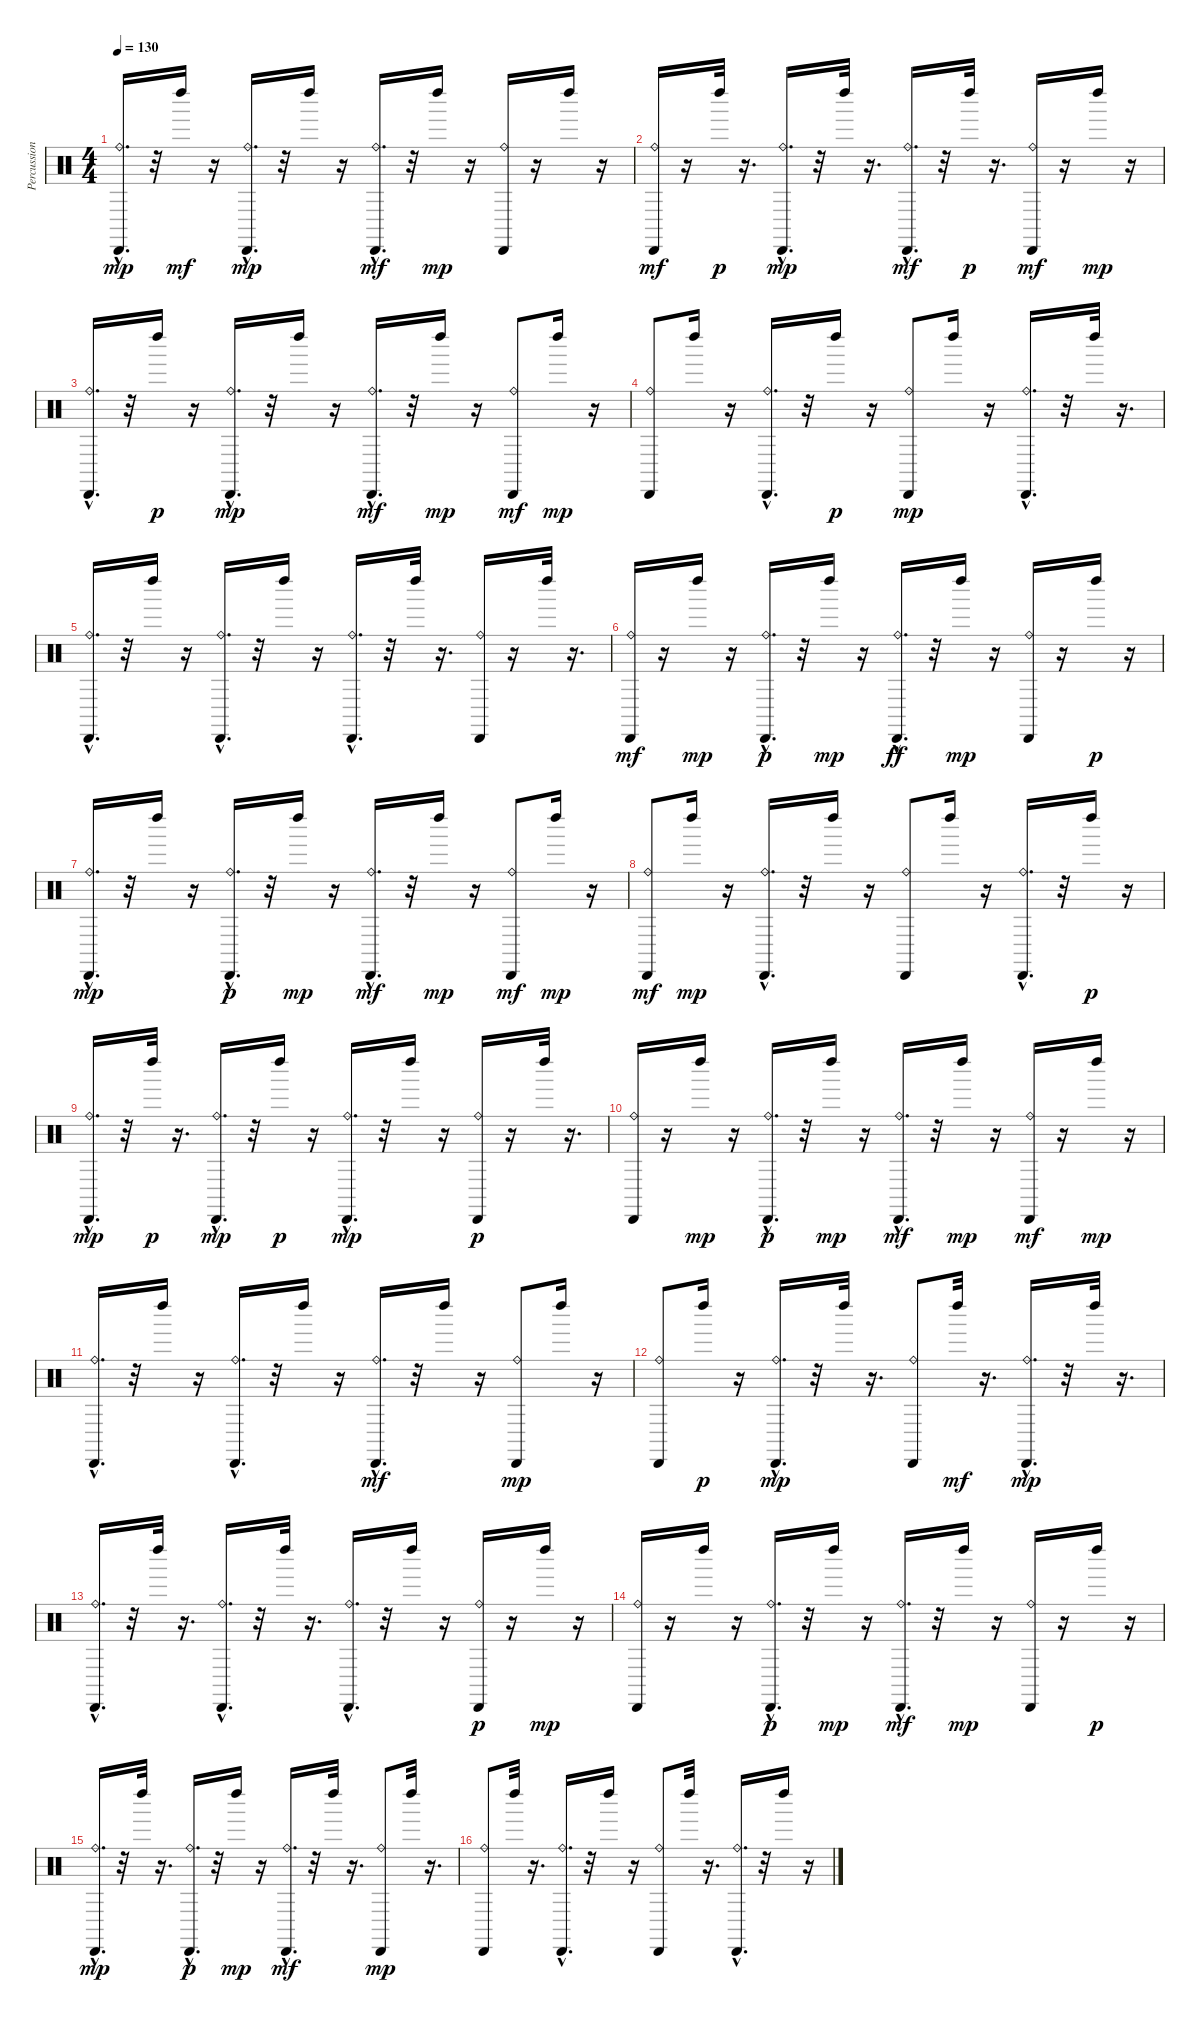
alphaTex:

\track ("Percussion" "Percussion") {instrument percussion}
\staff {score}
\articulation defaults
\ts (4 4)
\tempo 130
\clef neutral
\ks c
("Cabasa (hit)" "Ride (bell)"{hac}).16{d dy mp} r.32 "Left Maraca (hit)".16{dy mf} r.16 ("Cabasa (hit)" "Ride (bell)"{hac}).16{d dy mp} r.32 "Left Maraca (hit)".16 r.16 ("Ride (bell)"{hac} "Cabasa (hit)").16{d dy mf} r.32 "Left Maraca (hit)".16{dy mp} r.16 ("Cabasa (hit)" "Ride (bell)").16 r.16 "Left Maraca (hit)".16 r.16 |
("Cabasa (hit)" "Ride (bell)").16{dy mf} r.16 "Left Maraca (hit)".32{dy p} r.16{d} ("Cabasa (hit)" "Ride (bell)"{hac}).16{d dy mp} r.32 "Left Maraca (hit)".32 r.16{d} ("Cabasa (hit)" "Ride (bell)"{hac}).16{d dy mf} r.32 "Left Maraca (hit)".32{dy p} r.16{d} ("Cabasa (hit)" "Ride (bell)").16{dy mf} r.16 "Left Maraca (hit)".16{dy mp} r.16 |
("Cabasa (hit)" "Ride (bell)"{hac}).16{d} r.32 "Left Maraca (hit)".16{dy p} r.16 ("Cabasa (hit)" "Ride (bell)"{hac}).16{d dy mp} r.32 "Left Maraca (hit)".16 r.16 ("Cabasa (hit)" "Ride (bell)"{hac}).16{d dy mf} r.32 "Left Maraca (hit)".16{dy mp} r.16 ("Cabasa (hit)" "Ride (bell)").8{dy mf} "Left Maraca (hit)".16{dy mp} r.16 |
("Cabasa (hit)" "Ride (bell)").8 "Left Maraca (hit)".16 r.16 ("Cabasa (hit)" "Ride (bell)"{hac}).16{d} r.32 "Left Maraca (hit)".16{dy p} r.16 ("Cabasa (hit)" "Ride (bell)").8{dy mp} "Left Maraca (hit)".16 r.16 ("Cabasa (hit)" "Ride (bell)"{hac}).16{d} r.32 "Left Maraca (hit)".32 r.16{d} |
("Cabasa (hit)" "Ride (bell)"{hac}).16{d} r.32 "Left Maraca (hit)".16 r.16 ("Cabasa (hit)" "Ride (bell)"{hac}).16{d} r.32 "Left Maraca (hit)".16 r.16 ("Ride (bell)"{hac} "Cabasa (hit)").16{d} r.32 "Left Maraca (hit)".32 r.16{d} ("Ride (bell)" "Cabasa (hit)").16 r.16 "Left Maraca (hit)".32 r.16{d} |
("Ride (bell)" "Cabasa (hit)").16{dy mf} r.16 "Left Maraca (hit)".16{dy mp} r.16 ("Ride (bell)"{hac} "Cabasa (hit)").16{d dy p} r.32 "Left Maraca (hit)".16{dy mp} r.16 ("Ride (bell)"{hac} "Cabasa (hit)").16{d dy ff} r.32 "Left Maraca (hit)".16{dy mp} r.16 ("Ride (bell)" "Cabasa (hit)").16 r.16 "Left Maraca (hit)".16{dy p} r.16 |
("Ride (bell)"{hac} "Cabasa (hit)").16{d dy mp} r.32 "Left Maraca (hit)".16 r.16 ("Ride (bell)"{hac} "Cabasa (hit)").16{d dy p} r.32 "Left Maraca (hit)".16{dy mp} r.16 ("Ride (bell)"{hac} "Cabasa (hit)").16{d dy mf} r.32 "Left Maraca (hit)".16{dy mp} r.16 ("Ride (bell)" "Cabasa (hit)").8{dy mf} "Left Maraca (hit)".16{dy mp} r.16 |
("Ride (bell)" "Cabasa (hit)").8{dy mf} "Left Maraca (hit)".16{dy mp} r.16 ("Ride (bell)"{hac} "Cabasa (hit)").16{d} r.32 "Left Maraca (hit)".16 r.16 ("Ride (bell)" "Cabasa (hit)").8 "Left Maraca (hit)".16 r.16 ("Cabasa (hit)" "Ride (bell)"{hac}).16{d} r.32 "Left Maraca (hit)".16{dy p} r.16 |
("Cabasa (hit)" "Ride (bell)"{hac}).16{d dy mp} r.32 "Left Maraca (hit)".32{dy p} r.16{d} ("Cabasa (hit)" "Ride (bell)"{hac}).16{d dy mp} r.32 "Left Maraca (hit)".16{dy p} r.16 ("Ride (bell)"{hac} "Cabasa (hit)"{hac}).16{d dy mp} r.32 "Left Maraca (hit)".16 r.16 ("Ride (bell)" "Cabasa (hit)").16{dy p} r.16 "Left Maraca (hit)".32 r.16{d} |
("Ride (bell)" "Cabasa (hit)").16 r.16 "Left Maraca (hit)".16{dy mp} r.16 ("Ride (bell)"{hac} "Cabasa (hit)").16{d dy p} r.32 "Left Maraca (hit)".16{dy mp} r.16 ("Ride (bell)"{hac} "Cabasa (hit)").16{d dy mf} r.32 "Left Maraca (hit)".16{dy mp} r.16 ("Cabasa (hit)" "Ride (bell)").16{dy mf} r.16 "Left Maraca (hit)".16{dy mp} r.16 |
("Cabasa (hit)" "Ride (bell)"{hac}).16{d} r.32 "Left Maraca (hit)".16 r.16 ("Ride (bell)"{hac} "Cabasa (hit)").16{d} r.32 "Left Maraca (hit)".16 r.16 ("Ride (bell)"{hac} "Cabasa (hit)").16{d dy mf} r.32 "Left Maraca (hit)".16 r.16 ("Ride (bell)" "Cabasa (hit)").8{dy mp} "Left Maraca (hit)".16 r.16 |
("Ride (bell)" "Cabasa (hit)").8 "Left Maraca (hit)".16{dy p} r.16 ("Ride (bell)"{hac} "Cabasa (hit)").16{d dy mp} r.32 "Left Maraca (hit)".32 r.16{d} ("Ride (bell)" "Cabasa (hit)").8 "Left Maraca (hit)".32{dy mf} r.16{d} ("Ride (bell)"{hac} "Cabasa (hit)").16{d dy mp} r.32 "Left Maraca (hit)".32 r.16{d} |
("Ride (bell)"{hac} "Cabasa (hit)").16{d} r.32 "Left Maraca (hit)".32 r.16{d} ("Cabasa (hit)" "Ride (bell)"{hac}).16{d} r.32 "Left Maraca (hit)".32 r.16{d} ("Ride (bell)"{hac} "Cabasa (hit)").16{d} r.32 "Left Maraca (hit)".16 r.16 ("Ride (bell)" "Cabasa (hit)").16{dy p} r.16 "Left Maraca (hit)".16{dy mp} r.16 |
("Ride (bell)" "Cabasa (hit)").16 r.16 "Left Maraca (hit)".16 r.16 ("Ride (bell)"{hac} "Cabasa (hit)").16{d dy p} r.32 "Left Maraca (hit)".16{dy mp} r.16 ("Ride (bell)"{hac} "Cabasa (hit)").16{d dy mf} r.32 "Left Maraca (hit)".16{dy mp} r.16 ("Ride (bell)" "Cabasa (hit)").16 r.16 "Left Maraca (hit)".16{dy p} r.16 |
("Ride (bell)"{hac} "Cabasa (hit)").16{d dy mp} r.32 "Left Maraca (hit)".32 r.16{d} ("Ride (bell)"{hac} "Cabasa (hit)").16{d dy p} r.32 "Left Maraca (hit)".16{dy mp} r.16 ("Ride (bell)"{hac} "Cabasa (hit)").16{d dy mf} r.32 "Left Maraca (hit)".32 r.16{d} ("Ride (bell)" "Cabasa (hit)").8{dy mp} "Left Maraca (hit)".32 r.16{d} |
("Cabasa (hit)" "Ride (bell)").8 "Left Maraca (hit)".32 r.16{d} ("Cabasa (hit)" "Ride (bell)"{hac}).16{d} r.32 "Left Maraca (hit)".16 r.16 ("Cabasa (hit)" "Ride (bell)").8 "Left Maraca (hit)".32 r.16{d} ("Cabasa (hit)" "Ride (bell)"{hac}).16{d} r.32 "Left Maraca (hit)".16 r.16
